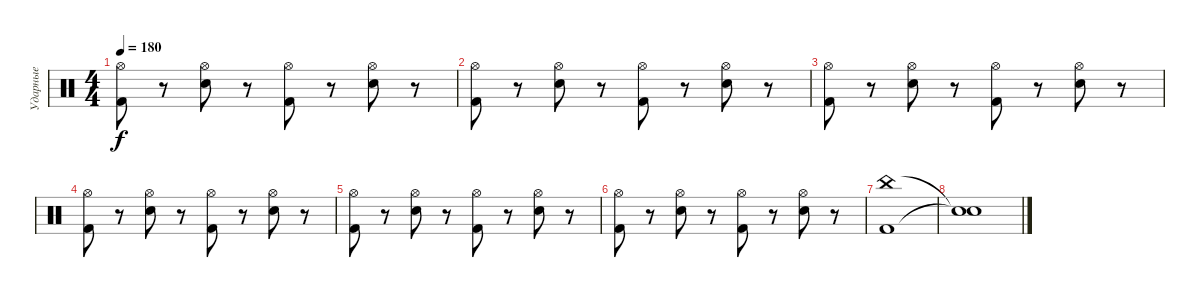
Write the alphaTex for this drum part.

\track ("Ударные" "Ударные") {instrument percussion}
\staff {score}
\articulation defaults
\ts (4 4)
\tempo 180
\clef neutral
\ks c
("Kick (hit) 2" "Hi-Hat (open)").8{dy f} r.8 ("Electric Snare (hit)" "Hi-Hat (open)").8 r.8 ("Kick (hit) 2" "Hi-Hat (open)").8 r.8 ("Electric Snare (hit)" "Hi-Hat (open)").8 r.8 |
("Kick (hit) 2" "Hi-Hat (open)").8 r.8 ("Electric Snare (hit)" "Hi-Hat (open)").8 r.8 ("Kick (hit) 2" "Hi-Hat (open)").8 r.8 ("Electric Snare (hit)" "Hi-Hat (open)").8 r.8 |
("Kick (hit) 2" "Hi-Hat (open)").8 r.8 ("Electric Snare (hit)" "Hi-Hat (open)").8 r.8 ("Kick (hit) 2" "Hi-Hat (open)").8 r.8 ("Electric Snare (hit)" "Hi-Hat (open)").8 r.8 |
("Kick (hit) 2" "Hi-Hat (open)").8 r.8 ("Electric Snare (hit)" "Hi-Hat (open)").8 r.8 ("Kick (hit) 2" "Hi-Hat (open)").8 r.8 ("Electric Snare (hit)" "Hi-Hat (open)").8 r.8 |
("Kick (hit) 2" "Hi-Hat (open)").8 r.8 ("Electric Snare (hit)" "Hi-Hat (open)").8 r.8 ("Kick (hit) 2" "Hi-Hat (open)").8 r.8 ("Electric Snare (hit)" "Hi-Hat (open)").8 r.8 |
("Kick (hit) 2" "Hi-Hat (open)").8 r.8 ("Electric Snare (hit)" "Hi-Hat (open)").8 r.8 ("Kick (hit) 2" "Hi-Hat (open)").8 r.8 ("Electric Snare (hit)" "Hi-Hat (open)").8 r.8 |
("Kick (hit) 2" "China (hit)").1 |
("Snare (hit)"{t} "Snare (hit)"{t}).1
